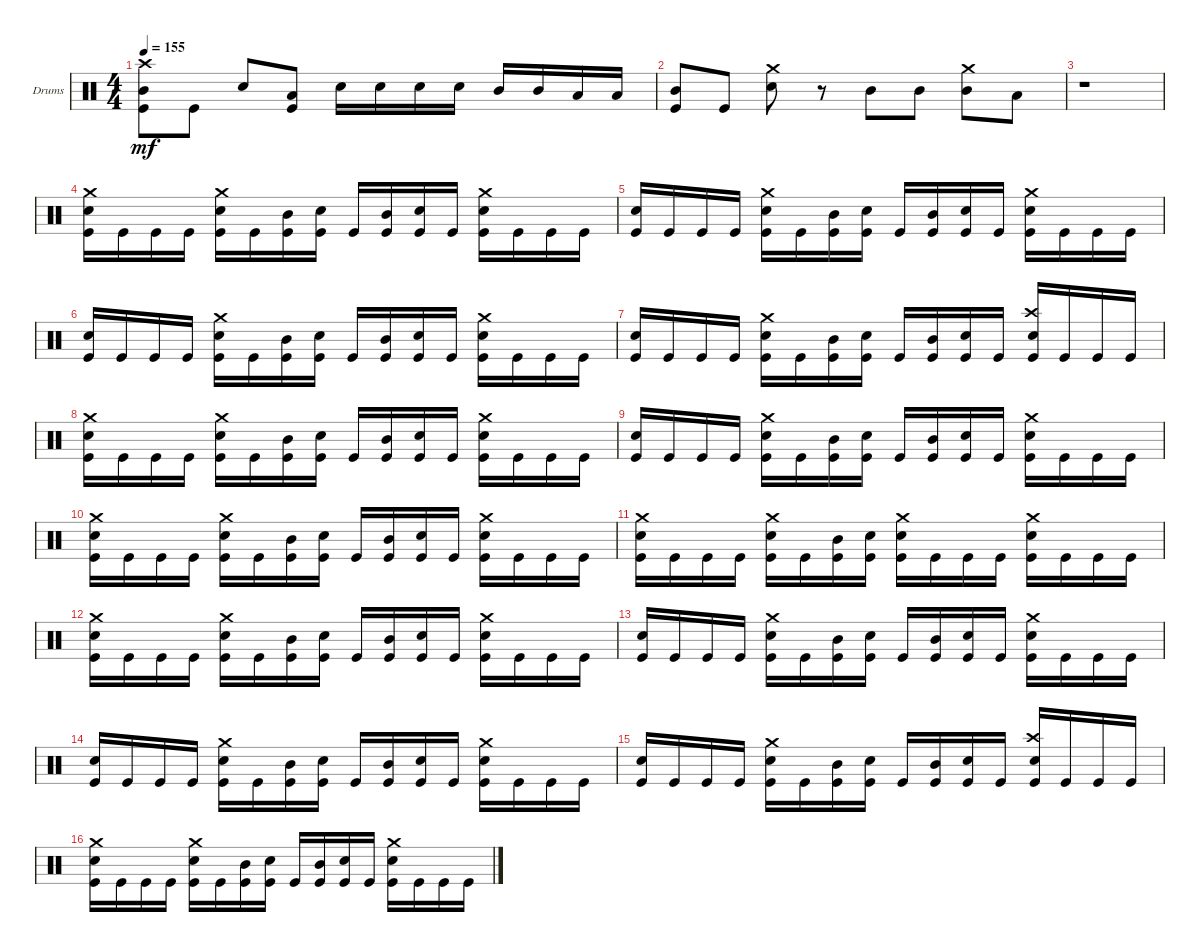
\defaultSystemsLayout 4
\bracketExtendMode groupsimilarinstruments
\firstSystemTrackNameOrientation horizontal
\otherSystemsTrackNameOrientation horizontal
\track ("Drumkit" "Drums") {instrument percussion}
\staff {score}
\articulation defaults
\ts (4 4)
\tempo 155
\clef neutral
\ks c
("Kick (hit)" "Mid Tom (hit)" "Crash high (hit)").8{dy mf} "Kick (hit)".8 "Snare (hit) 2".8 ("Kick (hit)" "Low Tom (hit)").8 "Snare (hit) 2".16 "Snare (hit) 2".16 "Snare (hit) 2".16 "Snare (hit) 2".16 "Mid Tom (hit)".16 "Mid Tom (hit)".16 "Low Tom (hit)".16 "Low Tom (hit)".16 |
("Kick (hit)" "Mid Tom (hit)").8 "Kick (hit)".8 ("Snare (hit) 2" "Crash medium (hit)").8 r.8 "Mid Tom (hit)".8 "Mid Tom (hit)".8 ("Mid Tom (hit)" "Crash medium (hit)").8 "Low Tom (hit)".8 |
r.1 |
("Kick (hit)" "Snare (hit) 2" "Crash medium (hit)").16 "Kick (hit)".16 "Kick (hit)".16 "Kick (hit)".16 ("Kick (hit)" "Snare (hit) 2" "Crash medium (hit)").16 "Kick (hit)".16 ("Kick (hit)" "Mid Tom (hit)").16 ("Kick (hit)" "Snare (hit) 2").16 "Kick (hit)".16 ("Kick (hit)" "Mid Tom (hit)").16 ("Kick (hit)" "Snare (hit) 2").16 "Kick (hit)".16 ("Kick (hit)" "Snare (hit) 2" "Crash medium (hit)").16 "Kick (hit)".16 "Kick (hit)".16 "Kick (hit)".16 |
("Kick (hit)" "Snare (hit) 2").16 "Kick (hit)".16 "Kick (hit)".16 "Kick (hit)".16 ("Kick (hit)" "Snare (hit) 2" "Crash medium (hit)").16 "Kick (hit)".16 ("Kick (hit)" "Mid Tom (hit)").16 ("Kick (hit)" "Snare (hit) 2").16 "Kick (hit)".16 ("Kick (hit)" "Mid Tom (hit)").16 ("Kick (hit)" "Snare (hit) 2").16 "Kick (hit)".16 ("Kick (hit)" "Snare (hit) 2" "Crash medium (hit)").16 "Kick (hit)".16 "Kick (hit)".16 "Kick (hit)".16 |
("Kick (hit)" "Snare (hit) 2").16 "Kick (hit)".16 "Kick (hit)".16 "Kick (hit)".16 ("Kick (hit)" "Snare (hit) 2" "Crash medium (hit)").16 "Kick (hit)".16 ("Kick (hit)" "Mid Tom (hit)").16 ("Kick (hit)" "Snare (hit) 2").16 "Kick (hit)".16 ("Kick (hit)" "Mid Tom (hit)").16 ("Kick (hit)" "Snare (hit) 2").16 "Kick (hit)".16 ("Kick (hit)" "Snare (hit) 2" "Crash medium (hit)").16 "Kick (hit)".16 "Kick (hit)".16 "Kick (hit)".16 |
("Kick (hit)" "Snare (hit) 2").16 "Kick (hit)".16 "Kick (hit)".16 "Kick (hit)".16 ("Kick (hit)" "Snare (hit) 2" "Crash medium (hit)").16 "Kick (hit)".16 ("Kick (hit)" "Mid Tom (hit)").16 ("Kick (hit)" "Snare (hit) 2").16 "Kick (hit)".16 ("Kick (hit)" "Mid Tom (hit)").16 ("Kick (hit)" "Snare (hit) 2").16 "Kick (hit)".16 ("Kick (hit)" "Snare (hit) 2" "Crash high (hit)").16 "Kick (hit)".16 "Kick (hit)".16 "Kick (hit)".16 |
("Kick (hit)" "Snare (hit) 2" "Crash medium (hit)").16 "Kick (hit)".16 "Kick (hit)".16 "Kick (hit)".16 ("Kick (hit)" "Snare (hit) 2" "Crash medium (hit)").16 "Kick (hit)".16 ("Kick (hit)" "Mid Tom (hit)").16 ("Kick (hit)" "Snare (hit) 2").16 "Kick (hit)".16 ("Kick (hit)" "Mid Tom (hit)").16 ("Kick (hit)" "Snare (hit) 2").16 "Kick (hit)".16 ("Kick (hit)" "Snare (hit) 2" "Crash medium (hit)").16 "Kick (hit)".16 "Kick (hit)".16 "Kick (hit)".16 |
("Kick (hit)" "Snare (hit) 2").16 "Kick (hit)".16 "Kick (hit)".16 "Kick (hit)".16 ("Kick (hit)" "Snare (hit) 2" "Crash medium (hit)").16 "Kick (hit)".16 ("Kick (hit)" "Mid Tom (hit)").16 ("Kick (hit)" "Snare (hit) 2").16 "Kick (hit)".16 ("Kick (hit)" "Mid Tom (hit)").16 ("Kick (hit)" "Snare (hit) 2").16 "Kick (hit)".16 ("Kick (hit)" "Snare (hit) 2" "Crash medium (hit)").16 "Kick (hit)".16 "Kick (hit)".16 "Kick (hit)".16 |
("Kick (hit)" "Snare (hit) 2" "Crash medium (hit)").16 "Kick (hit)".16 "Kick (hit)".16 "Kick (hit)".16 ("Kick (hit)" "Snare (hit) 2" "Crash medium (hit)").16 "Kick (hit)".16 ("Kick (hit)" "Mid Tom (hit)").16 ("Kick (hit)" "Snare (hit) 2").16 "Kick (hit)".16 ("Kick (hit)" "Mid Tom (hit)").16 ("Kick (hit)" "Snare (hit) 2").16 "Kick (hit)".16 ("Kick (hit)" "Snare (hit) 2" "Crash medium (hit)").16 "Kick (hit)".16 "Kick (hit)".16 "Kick (hit)".16 |
("Kick (hit)" "Snare (hit) 2" "Crash medium (hit)").16 "Kick (hit)".16 "Kick (hit)".16 "Kick (hit)".16 ("Kick (hit)" "Snare (hit) 2" "Crash medium (hit)").16 "Kick (hit)".16 ("Kick (hit)" "Mid Tom (hit)").16 ("Kick (hit)" "Snare (hit) 2").16 ("Kick (hit)" "Snare (hit) 2" "Crash medium (hit)").16 "Kick (hit)".16 "Kick (hit)".16 "Kick (hit)".16 ("Kick (hit)" "Snare (hit) 2" "Crash medium (hit)").16 "Kick (hit)".16 "Kick (hit)".16 "Kick (hit)".16 |
("Kick (hit)" "Snare (hit) 2" "Crash medium (hit)").16 "Kick (hit)".16 "Kick (hit)".16 "Kick (hit)".16 ("Kick (hit)" "Snare (hit) 2" "Crash medium (hit)").16 "Kick (hit)".16 ("Kick (hit)" "Mid Tom (hit)").16 ("Kick (hit)" "Snare (hit) 2").16 "Kick (hit)".16 ("Kick (hit)" "Mid Tom (hit)").16 ("Kick (hit)" "Snare (hit) 2").16 "Kick (hit)".16 ("Kick (hit)" "Snare (hit) 2" "Crash medium (hit)").16 "Kick (hit)".16 "Kick (hit)".16 "Kick (hit)".16 |
("Kick (hit)" "Snare (hit) 2").16 "Kick (hit)".16 "Kick (hit)".16 "Kick (hit)".16 ("Kick (hit)" "Snare (hit) 2" "Crash medium (hit)").16 "Kick (hit)".16 ("Kick (hit)" "Mid Tom (hit)").16 ("Kick (hit)" "Snare (hit) 2").16 "Kick (hit)".16 ("Kick (hit)" "Mid Tom (hit)").16 ("Kick (hit)" "Snare (hit) 2").16 "Kick (hit)".16 ("Kick (hit)" "Snare (hit) 2" "Crash medium (hit)").16 "Kick (hit)".16 "Kick (hit)".16 "Kick (hit)".16 |
("Kick (hit)" "Snare (hit) 2").16 "Kick (hit)".16 "Kick (hit)".16 "Kick (hit)".16 ("Kick (hit)" "Snare (hit) 2" "Crash medium (hit)").16 "Kick (hit)".16 ("Kick (hit)" "Mid Tom (hit)").16 ("Kick (hit)" "Snare (hit) 2").16 "Kick (hit)".16 ("Kick (hit)" "Mid Tom (hit)").16 ("Kick (hit)" "Snare (hit) 2").16 "Kick (hit)".16 ("Kick (hit)" "Snare (hit) 2" "Crash medium (hit)").16 "Kick (hit)".16 "Kick (hit)".16 "Kick (hit)".16 |
("Kick (hit)" "Snare (hit) 2").16 "Kick (hit)".16 "Kick (hit)".16 "Kick (hit)".16 ("Kick (hit)" "Snare (hit) 2" "Crash medium (hit)").16 "Kick (hit)".16 ("Kick (hit)" "Mid Tom (hit)").16 ("Kick (hit)" "Snare (hit) 2").16 "Kick (hit)".16 ("Kick (hit)" "Mid Tom (hit)").16 ("Kick (hit)" "Snare (hit) 2").16 "Kick (hit)".16 ("Kick (hit)" "Snare (hit) 2" "Crash high (hit)").16 "Kick (hit)".16 "Kick (hit)".16 "Kick (hit)".16 |
("Kick (hit)" "Snare (hit) 2" "Crash medium (hit)").16 "Kick (hit)".16 "Kick (hit)".16 "Kick (hit)".16 ("Kick (hit)" "Snare (hit) 2" "Crash medium (hit)").16 "Kick (hit)".16 ("Kick (hit)" "Mid Tom (hit)").16 ("Kick (hit)" "Snare (hit) 2").16 "Kick (hit)".16 ("Kick (hit)" "Mid Tom (hit)").16 ("Kick (hit)" "Snare (hit) 2").16 "Kick (hit)".16 ("Kick (hit)" "Snare (hit) 2" "Crash medium (hit)").16 "Kick (hit)".16 "Kick (hit)".16 "Kick (hit)".16
